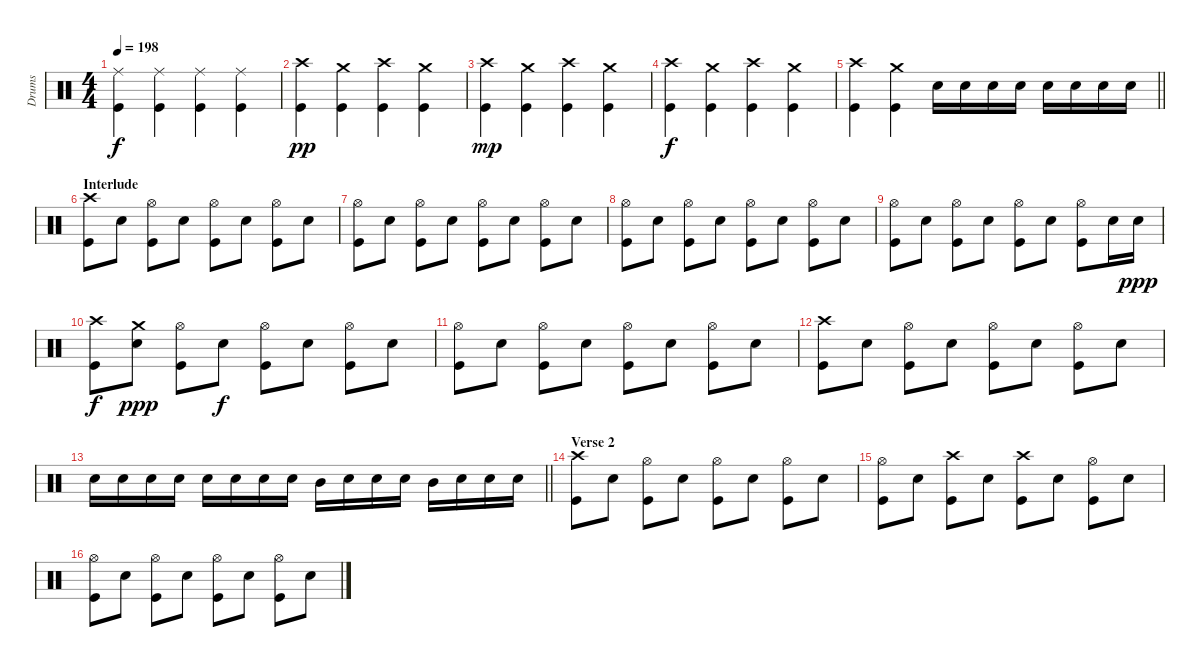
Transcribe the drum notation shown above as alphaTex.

\track ("Drums" "Drums") {instrument percussion}
\staff {score}
\articulation defaults
\ts (4 4)
\tempo 198
\clef neutral
\ks c
("Ride (middle)" "Kick (hit)").4{dy f} ("Ride (middle)" "Kick (hit)").4 ("Ride (middle)" "Kick (hit)").4 ("Ride (middle)" "Kick (hit)").4 |
("Crash high (hit)" "Kick (hit)").4{dy pp} ("Crash medium (hit)" "Kick (hit)").4 ("Crash high (hit)" "Kick (hit)").4 ("Crash medium (hit)" "Kick (hit)").4 |
("Crash high (hit)" "Kick (hit)").4{dy mp} ("Crash medium (hit)" "Kick (hit)").4 ("Crash high (hit)" "Kick (hit)").4 ("Crash medium (hit)" "Kick (hit)").4 |
("Crash high (hit)" "Kick (hit)").4{dy f} ("Crash medium (hit)" "Kick (hit)").4 ("Crash high (hit)" "Kick (hit)").4 ("Crash medium (hit)" "Kick (hit)").4 |
\barLineRight lightlight
("Crash high (hit)" "Kick (hit)").4 ("Crash medium (hit)" "Kick (hit)").4 "Electric Snare (hit)".16 "Electric Snare (hit)".16 "Electric Snare (hit)".16 "Electric Snare (hit)".16 "Electric Snare (hit)".16 "Electric Snare (hit)".16 "Electric Snare (hit)".16 "Electric Snare (hit)".16 |
\section ("" "Interlude")
("Crash high (hit)" "Kick (hit)").8 "Electric Snare (hit)".8 ("Hi-Hat (open)" "Kick (hit)").8 "Electric Snare (hit)".8 ("Hi-Hat (open)" "Kick (hit)").8 "Electric Snare (hit)".8 ("Hi-Hat (open)" "Kick (hit)").8 "Electric Snare (hit)".8 |
("Hi-Hat (open)" "Kick (hit)").8 "Electric Snare (hit)".8 ("Hi-Hat (open)" "Kick (hit)").8 "Electric Snare (hit)".8 ("Hi-Hat (open)" "Kick (hit)").8 "Electric Snare (hit)".8 ("Hi-Hat (open)" "Kick (hit)").8 "Electric Snare (hit)".8 |
("Hi-Hat (open)" "Kick (hit)").8 "Electric Snare (hit)".8 ("Hi-Hat (open)" "Kick (hit)").8 "Electric Snare (hit)".8 ("Hi-Hat (open)" "Kick (hit)").8 "Electric Snare (hit)".8 ("Hi-Hat (open)" "Kick (hit)").8 "Electric Snare (hit)".8 |
("Hi-Hat (open)" "Kick (hit)").8 "Electric Snare (hit)".8 ("Hi-Hat (open)" "Kick (hit)").8 "Electric Snare (hit)".8 ("Hi-Hat (open)" "Kick (hit)").8 "Electric Snare (hit)".8 ("Hi-Hat (open)" "Kick (hit)").8 "Electric Snare (hit)".16 "Electric Snare (hit)".16{dy ppp} |
("Crash high (hit)" "Kick (hit)").8{dy f} ("Crash medium (hit)" "Electric Snare (hit)").8{dy ppp} ("Hi-Hat (open)" "Kick (hit)").8 "Electric Snare (hit)".8{dy f} ("Hi-Hat (open)" "Kick (hit)").8 "Electric Snare (hit)".8 ("Hi-Hat (open)" "Kick (hit)").8 "Electric Snare (hit)".8 |
("Hi-Hat (open)" "Kick (hit)").8 "Electric Snare (hit)".8 ("Hi-Hat (open)" "Kick (hit)").8 "Electric Snare (hit)".8 ("Hi-Hat (open)" "Kick (hit)").8 "Electric Snare (hit)".8 ("Hi-Hat (open)" "Kick (hit)").8 "Electric Snare (hit)".8 |
("Crash high (hit)" "Kick (hit)").8 "Electric Snare (hit)".8 ("Hi-Hat (open)" "Kick (hit)").8 "Electric Snare (hit)".8 ("Hi-Hat (open)" "Kick (hit)").8 "Electric Snare (hit)".8 ("Hi-Hat (open)" "Kick (hit)").8 "Electric Snare (hit)".8 |
\barLineRight lightlight "Electric Snare (hit)".16 "Electric Snare (hit)".16 "Electric Snare (hit)".16 "Electric Snare (hit)".16 "Electric Snare (hit)".16 "Electric Snare (hit)".16 "Electric Snare (hit)".16 "Electric Snare (hit)".16 "Mid Tom (hit)".16 "Electric Snare (hit)".16 "Electric Snare (hit)".16 "Electric Snare (hit)".16 "Mid Tom (hit)".16 "Electric Snare (hit)".16 "Electric Snare (hit)".16 "Electric Snare (hit)".16
|
\section ("" "Verse 2")
("Crash high (hit)" "Kick (hit)").8 "Electric Snare (hit)".8 ("Hi-Hat (open)" "Kick (hit)").8 "Electric Snare (hit)".8 ("Hi-Hat (open)" "Kick (hit)").8 "Electric Snare (hit)".8 ("Hi-Hat (open)" "Kick (hit)").8 "Electric Snare (hit)".8 |
("Hi-Hat (open)" "Kick (hit)").8 "Electric Snare (hit)".8 ("Crash high (hit)" "Kick (hit)").8 "Electric Snare (hit)".8 ("Crash high (hit)" "Kick (hit)").8 "Electric Snare (hit)".8 ("Hi-Hat (open)" "Kick (hit)").8 "Electric Snare (hit)".8 |
("Hi-Hat (open)" "Kick (hit)").8 "Electric Snare (hit)".8 ("Hi-Hat (open)" "Kick (hit)").8 "Electric Snare (hit)".8 ("Hi-Hat (open)" "Kick (hit)").8 "Electric Snare (hit)".8 ("Hi-Hat (open)" "Kick (hit)").8 "Electric Snare (hit)".8
